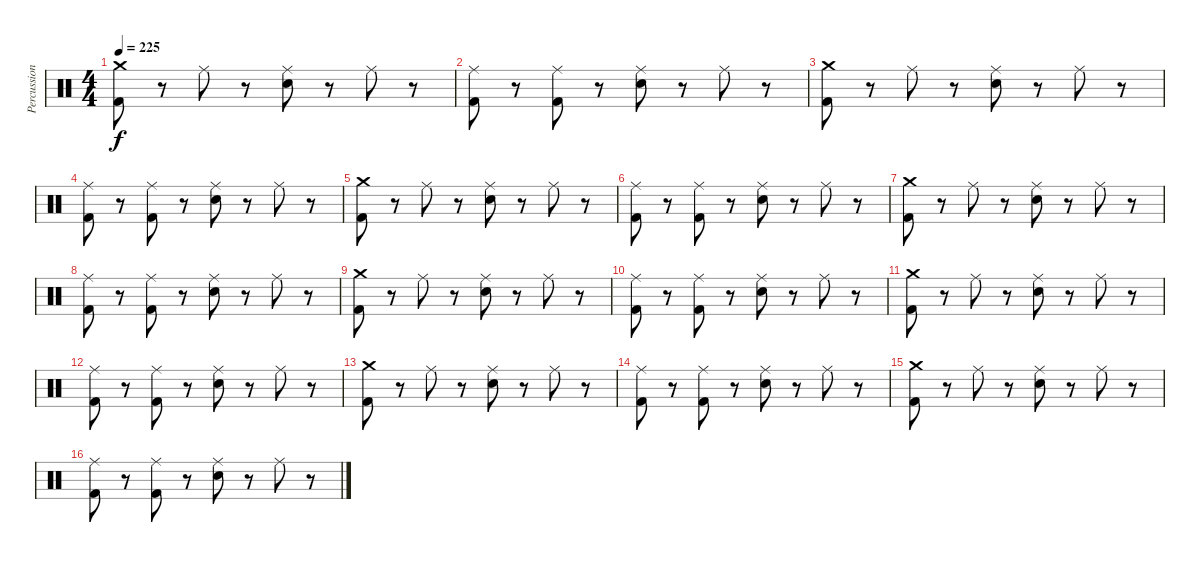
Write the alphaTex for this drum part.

\track ("Percussion" "Percussion") {instrument percussion}
\staff {score}
\articulation defaults
\ts (4 4)
\tempo 225
\clef neutral
\ks c
("Crash medium (hit)" "Kick (hit) 2").8{dy f} r.8 "Ride (middle)".8 r.8 ("Ride (middle)" "Electric Snare (hit)").8 r.8 "Ride (middle)".8 r.8 |
("Ride (middle)" "Kick (hit) 2").8 r.8 ("Ride (middle)" "Kick (hit) 2").8 r.8 ("Ride (middle)" "Electric Snare (hit)").8 r.8 "Ride (middle)".8 r.8 |
("Crash medium (hit)" "Kick (hit) 2").8 r.8 "Ride (middle)".8 r.8 ("Ride (middle)" "Electric Snare (hit)").8 r.8 "Ride (middle)".8 r.8 |
("Ride (middle)" "Kick (hit) 2").8 r.8 ("Ride (middle)" "Kick (hit) 2").8 r.8 ("Ride (middle)" "Electric Snare (hit)").8 r.8 "Ride (middle)".8 r.8 |
("Crash medium (hit)" "Kick (hit) 2").8 r.8 "Ride (middle)".8 r.8 ("Ride (middle)" "Electric Snare (hit)").8 r.8 "Ride (middle)".8 r.8 |
("Ride (middle)" "Kick (hit) 2").8 r.8 ("Ride (middle)" "Kick (hit) 2").8 r.8 ("Ride (middle)" "Electric Snare (hit)").8 r.8 "Ride (middle)".8 r.8 |
("Crash medium (hit)" "Kick (hit) 2").8 r.8 "Ride (middle)".8 r.8 ("Ride (middle)" "Electric Snare (hit)").8 r.8 "Ride (middle)".8 r.8 |
("Ride (middle)" "Kick (hit) 2").8 r.8 ("Ride (middle)" "Kick (hit) 2").8 r.8 ("Ride (middle)" "Electric Snare (hit)").8 r.8 "Ride (middle)".8 r.8 |
("Crash medium (hit)" "Kick (hit) 2").8 r.8 "Ride (middle)".8 r.8 ("Ride (middle)" "Electric Snare (hit)").8 r.8 "Ride (middle)".8 r.8 |
("Ride (middle)" "Kick (hit) 2").8 r.8 ("Ride (middle)" "Kick (hit) 2").8 r.8 ("Ride (middle)" "Electric Snare (hit)").8 r.8 "Ride (middle)".8 r.8 |
("Crash medium (hit)" "Kick (hit) 2").8 r.8 "Ride (middle)".8 r.8 ("Ride (middle)" "Electric Snare (hit)").8 r.8 "Ride (middle)".8 r.8 |
("Ride (middle)" "Kick (hit) 2").8 r.8 ("Ride (middle)" "Kick (hit) 2").8 r.8 ("Ride (middle)" "Electric Snare (hit)").8 r.8 "Ride (middle)".8 r.8 |
("Crash medium (hit)" "Kick (hit) 2").8 r.8 "Ride (middle)".8 r.8 ("Ride (middle)" "Electric Snare (hit)").8 r.8 "Ride (middle)".8 r.8 |
("Ride (middle)" "Kick (hit) 2").8 r.8 ("Ride (middle)" "Kick (hit) 2").8 r.8 ("Ride (middle)" "Electric Snare (hit)").8 r.8 "Ride (middle)".8 r.8 |
("Crash medium (hit)" "Kick (hit) 2").8 r.8 "Ride (middle)".8 r.8 ("Ride (middle)" "Electric Snare (hit)").8 r.8 "Ride (middle)".8 r.8 |
("Ride (middle)" "Kick (hit) 2").8 r.8 ("Ride (middle)" "Kick (hit) 2").8 r.8 ("Ride (middle)" "Electric Snare (hit)").8 r.8 "Ride (middle)".8 r.8
